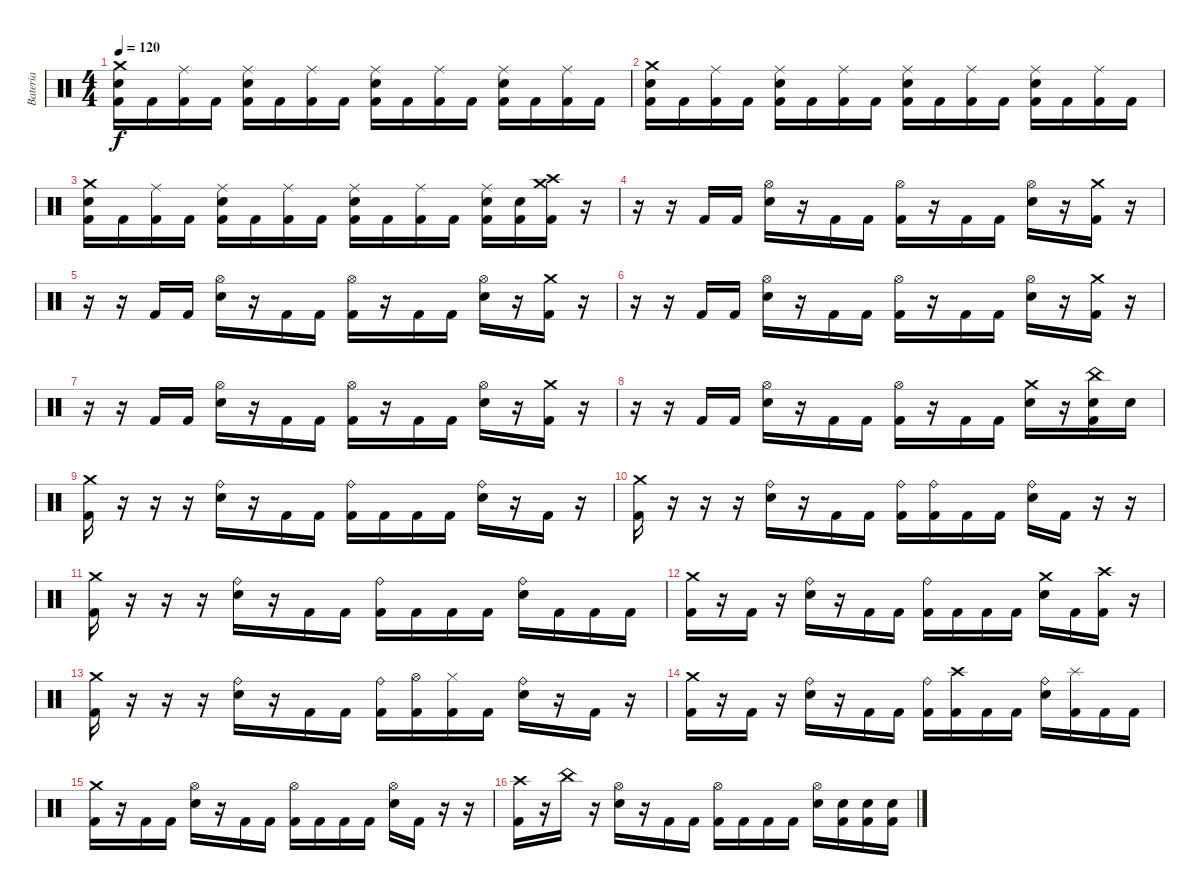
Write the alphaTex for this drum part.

\track ("Bateria" "Bateria") {instrument percussion}
\staff {score}
\articulation defaults
\ts (4 4)
\tempo 120
\clef neutral
\ks c
("Crash medium (hit)" "Electric Snare (hit)" "Kick (hit) 2").16{dy f} "Kick (hit) 2".16 ("Ride (middle)" "Kick (hit) 2").16 "Kick (hit) 2".16 ("Ride (middle)" "Electric Snare (hit)" "Kick (hit) 2").16 "Kick (hit) 2".16 ("Ride (middle)" "Kick (hit) 2").16 "Kick (hit) 2".16 ("Ride (middle)" "Electric Snare (hit)" "Kick (hit) 2").16 "Kick (hit) 2".16 ("Ride (middle)" "Kick (hit) 2").16 "Kick (hit) 2".16 ("Ride (middle)" "Electric Snare (hit)" "Kick (hit) 2").16 "Kick (hit) 2".16 ("Ride (middle)" "Kick (hit) 2").16 "Kick (hit) 2".16 |
("Crash medium (hit)" "Electric Snare (hit)" "Kick (hit) 2").16 "Kick (hit) 2".16 ("Ride (middle)" "Kick (hit) 2").16 "Kick (hit) 2".16 ("Ride (middle)" "Electric Snare (hit)" "Kick (hit) 2").16 "Kick (hit) 2".16 ("Ride (middle)" "Kick (hit) 2").16 "Kick (hit) 2".16 ("Ride (middle)" "Electric Snare (hit)" "Kick (hit) 2").16 "Kick (hit) 2".16 ("Ride (middle)" "Kick (hit) 2").16 "Kick (hit) 2".16 ("Ride (middle)" "Electric Snare (hit)" "Kick (hit) 2").16 "Kick (hit) 2".16 ("Ride (middle)" "Kick (hit) 2").16 "Kick (hit) 2".16 |
("Crash medium (hit)" "Electric Snare (hit)" "Kick (hit) 2").16 "Kick (hit) 2".16 ("Ride (middle)" "Kick (hit) 2").16 "Kick (hit) 2".16 ("Ride (middle)" "Electric Snare (hit)" "Kick (hit) 2").16 "Kick (hit) 2".16 ("Ride (middle)" "Kick (hit) 2").16 "Kick (hit) 2".16 ("Ride (middle)" "Electric Snare (hit)" "Kick (hit) 2").16 "Kick (hit) 2".16 ("Ride (middle)" "Kick (hit) 2").16 "Kick (hit) 2".16 ("Ride (middle)" "Electric Snare (hit)" "Kick (hit) 2").16 ("Electric Snare (hit)" "Kick (hit) 2").16 ("Crash medium (hit)" "Crash high (hit)" "Kick (hit) 2").16 r.16 |
r.16 r.16 "Kick (hit) 2".16 "Kick (hit) 2".16 ("Hi-Hat (open)" "Electric Snare (hit)").16 r.16 "Kick (hit) 2".16 "Kick (hit) 2".16 ("Hi-Hat (open)" "Kick (hit) 2").16 r.16 "Kick (hit) 2".16 "Kick (hit) 2".16 ("Hi-Hat (open)" "Electric Snare (hit)").16 r.16 ("Crash medium (hit)" "Kick (hit) 2").16 r.16 |
r.16 r.16 "Kick (hit) 2".16 "Kick (hit) 2".16 ("Hi-Hat (open)" "Electric Snare (hit)").16 r.16 "Kick (hit) 2".16 "Kick (hit) 2".16 ("Hi-Hat (open)" "Kick (hit) 2").16 r.16 "Kick (hit) 2".16 "Kick (hit) 2".16 ("Hi-Hat (open)" "Electric Snare (hit)").16 r.16 ("Crash medium (hit)" "Kick (hit) 2").16 r.16 |
r.16 r.16 "Kick (hit) 2".16 "Kick (hit) 2".16 ("Hi-Hat (open)" "Electric Snare (hit)").16 r.16 "Kick (hit) 2".16 "Kick (hit) 2".16 ("Hi-Hat (open)" "Kick (hit) 2").16 r.16 "Kick (hit) 2".16 "Kick (hit) 2".16 ("Hi-Hat (open)" "Electric Snare (hit)").16 r.16 ("Crash medium (hit)" "Kick (hit) 2").16 r.16 |
r.16 r.16 "Kick (hit) 2".16 "Kick (hit) 2".16 ("Hi-Hat (open)" "Electric Snare (hit)").16 r.16 "Kick (hit) 2".16 "Kick (hit) 2".16 ("Hi-Hat (open)" "Kick (hit) 2").16 r.16 "Kick (hit) 2".16 "Kick (hit) 2".16 ("Hi-Hat (open)" "Electric Snare (hit)").16 r.16 ("Crash medium (hit)" "Kick (hit) 2").16 r.16 |
r.16 r.16 "Kick (hit) 2".16 "Kick (hit) 2".16 ("Hi-Hat (open)" "Electric Snare (hit)").16 r.16 "Kick (hit) 2".16 "Kick (hit) 2".16 ("Hi-Hat (open)" "Kick (hit) 2").16 r.16 "Kick (hit) 2".16 "Kick (hit) 2".16 ("Crash medium (hit)" "Electric Snare (hit)").16 r.16 ("China (hit)" "Electric Snare (hit)" "Kick (hit) 2").16 "Electric Snare (hit)".16 |
("Crash medium (hit)" "Kick (hit) 2").16 r.16 r.16 r.16 ("Ride (bell)" "Electric Snare (hit)").16 r.16 "Kick (hit) 2".16 "Kick (hit) 2".16 ("Ride (bell)" "Kick (hit) 2").16 "Kick (hit) 2".16 "Kick (hit) 2".16 "Kick (hit) 2".16 ("Ride (bell)" "Electric Snare (hit)").16 r.16 "Kick (hit) 2".16 r.16 |
("Crash medium (hit)" "Kick (hit) 2").16 r.16 r.16 r.16 ("Ride (bell)" "Electric Snare (hit)").16 r.16 "Kick (hit) 2".16 "Kick (hit) 2".16 ("Ride (bell)" "Kick (hit) 2").16 ("Ride (bell)" "Kick (hit) 2").16 "Kick (hit) 2".16 "Kick (hit) 2".16 ("Ride (bell)" "Electric Snare (hit)").16 "Kick (hit) 2".16 r.16 r.16 |
("Crash medium (hit)" "Kick (hit) 2").16 r.16 r.16 r.16 ("Ride (bell)" "Electric Snare (hit)").16 r.16 "Kick (hit) 2".16 "Kick (hit) 2".16 ("Ride (bell)" "Kick (hit) 2").16 "Kick (hit) 2".16 "Kick (hit) 2".16 "Kick (hit) 2".16 ("Ride (bell)" "Electric Snare (hit)").16 "Kick (hit) 2".16 "Kick (hit) 2".16 "Kick (hit) 2".16 |
("Crash medium (hit)" "Kick (hit) 2").16 r.16 "Kick (hit) 2".16 r.16 ("Ride (bell)" "Electric Snare (hit)").16 r.16 "Kick (hit) 2".16 "Kick (hit) 2".16 ("Ride (bell)" "Kick (hit) 2").16 "Kick (hit) 2".16 "Kick (hit) 2".16 "Kick (hit) 2".16 ("Crash medium (hit)" "Electric Snare (hit)").16 "Kick (hit) 2".16 ("Crash high (hit)" "Kick (hit) 2").16 r.16 |
("Crash medium (hit)" "Kick (hit) 2").16 r.16 r.16 r.16 ("Ride (bell)" "Electric Snare (hit)").16 r.16 "Kick (hit) 2".16 "Kick (hit) 2".16 ("Ride (bell)" "Kick (hit) 2").16 ("Hi-Hat (open)" "Kick (hit) 2").16 ("Hi-Hat (closed)" "Kick (hit) 2").16 "Kick (hit) 2".16 ("Ride (bell)" "Electric Snare (hit)").16 r.16 "Kick (hit) 2".16 r.16 |
("Crash medium (hit)" "Kick (hit) 2").16 r.16 "Kick (hit) 2".16 r.16 ("Ride (bell)" "Electric Snare (hit)").16 r.16 "Kick (hit) 2".16 "Kick (hit) 2".16 ("Ride (bell)" "Kick (hit) 2").16 ("Crash high (hit)" "Kick (hit) 2").16 "Kick (hit) 2".16 "Kick (hit) 2".16 ("Ride (bell)" "Electric Snare (hit)").16 ("Splash (hit)" "Kick (hit) 2").16 "Kick (hit) 2".16 "Kick (hit) 2".16 |
("Crash medium (hit)" "Kick (hit) 2").16 r.16 "Kick (hit) 2".16 "Kick (hit) 2".16 ("Hi-Hat (open)" "Electric Snare (hit)").16 r.16 "Kick (hit) 2".16 "Kick (hit) 2".16 ("Hi-Hat (open)" "Kick (hit) 2").16 "Kick (hit) 2".16 "Kick (hit) 2".16 "Kick (hit) 2".16 ("Hi-Hat (open)" "Electric Snare (hit)").16 "Kick (hit) 2".16 r.16 r.16 |
("Crash high (hit)" "Kick (hit) 2").16 r.16 "China (hit)".16 r.16 ("Hi-Hat (open)" "Electric Snare (hit)").16 r.16 "Kick (hit) 2".16 "Kick (hit) 2".16 ("Hi-Hat (open)" "Kick (hit) 2").16 "Kick (hit) 2".16 "Kick (hit) 2".16 "Kick (hit) 2".16 ("Hi-Hat (open)" "Electric Snare (hit)").16 ("Electric Snare (hit)" "Kick (hit) 2").16 ("Electric Snare (hit)" "Kick (hit) 2").16 ("Electric Snare (hit)" "Kick (hit) 2").16
